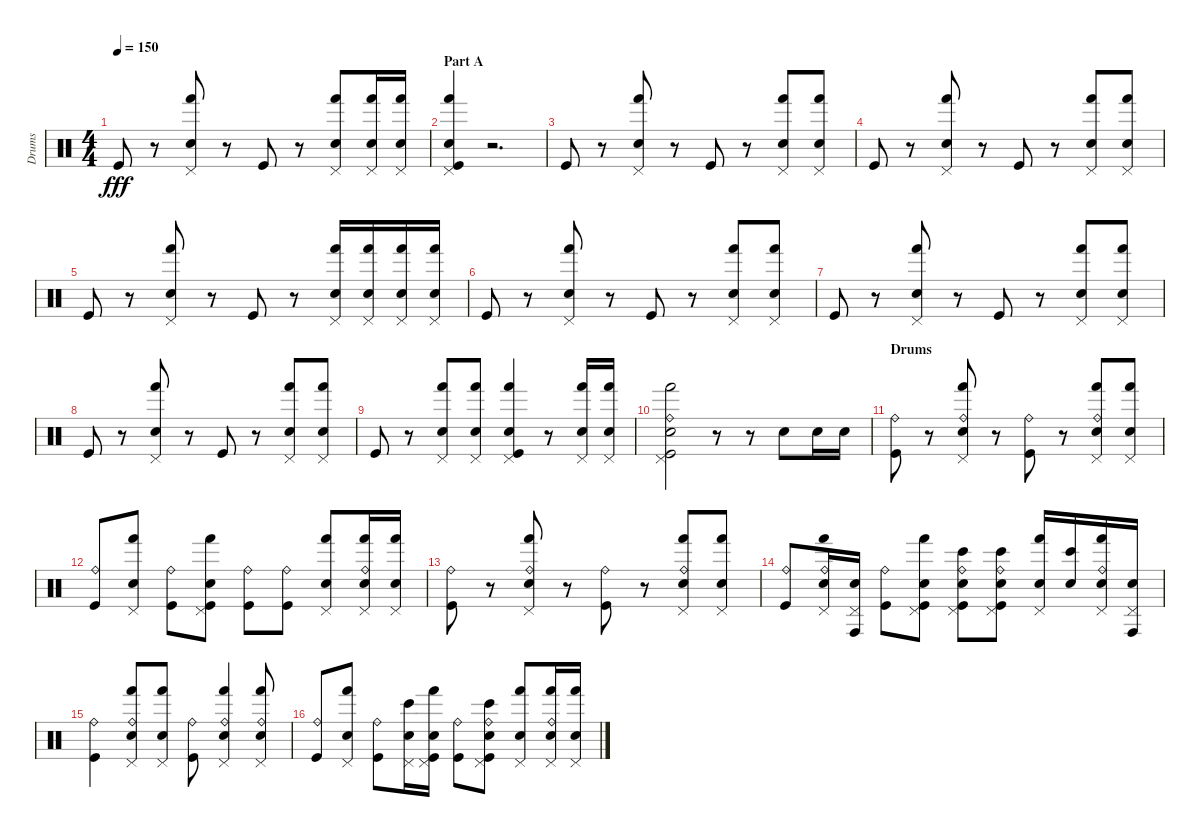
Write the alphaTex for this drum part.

\track ("Drums" "Drums") {instrument percussion}
\staff {score}
\articulation defaults
\ts (4 4)
\tempo 150
\clef neutral
\ks c "Kick (hit)".8{dy fff}
r.8 ("Pedal Hi-Hat (hit)" "Hand (hit)" "Electric Snare (hit)").8 r.8 "Kick (hit)".8 r.8 ("Pedal Hi-Hat (hit)" "Hand (hit)" "Electric Snare (hit)").8 ("Pedal Hi-Hat (hit)" "Hand (hit)" "Electric Snare (hit)").16 ("Pedal Hi-Hat (hit)" "Hand (hit)" "Electric Snare (hit)").16 |
\section ("" "Part A")
("Pedal Hi-Hat (hit)" "Hand (hit)" "Electric Snare (hit)" "Kick (hit)").4 r.2{d} |
"Kick (hit)".8 r.8 ("Pedal Hi-Hat (hit)" "Hand (hit)" "Electric Snare (hit)").8 r.8 "Kick (hit)".8 r.8 ("Pedal Hi-Hat (hit)" "Hand (hit)" "Electric Snare (hit)").8 ("Pedal Hi-Hat (hit)" "Hand (hit)" "Electric Snare (hit)").8 |
"Kick (hit)".8 r.8 ("Pedal Hi-Hat (hit)" "Hand (hit)" "Electric Snare (hit)").8 r.8 "Kick (hit)".8 r.8 ("Pedal Hi-Hat (hit)" "Hand (hit)" "Electric Snare (hit)").8 ("Pedal Hi-Hat (hit)" "Hand (hit)" "Electric Snare (hit)").8 |
"Kick (hit)".8 r.8 ("Pedal Hi-Hat (hit)" "Hand (hit)" "Electric Snare (hit)").8 r.8 "Kick (hit)".8 r.8 ("Pedal Hi-Hat (hit)" "Hand (hit)" "Electric Snare (hit)").16 ("Pedal Hi-Hat (hit)" "Hand (hit)" "Electric Snare (hit)").16 ("Pedal Hi-Hat (hit)" "Hand (hit)" "Electric Snare (hit)").16 ("Pedal Hi-Hat (hit)" "Hand (hit)" "Electric Snare (hit)").16 |
"Kick (hit)".8 r.8 ("Pedal Hi-Hat (hit)" "Hand (hit)" "Electric Snare (hit)").8 r.8 "Kick (hit)".8 r.8 ("Pedal Hi-Hat (hit)" "Hand (hit)" "Electric Snare (hit)").8 ("Pedal Hi-Hat (hit)" "Hand (hit)" "Electric Snare (hit)").8 |
"Kick (hit)".8 r.8 ("Pedal Hi-Hat (hit)" "Hand (hit)" "Electric Snare (hit)").8 r.8 "Kick (hit)".8 r.8 ("Pedal Hi-Hat (hit)" "Hand (hit)" "Electric Snare (hit)").8 ("Pedal Hi-Hat (hit)" "Hand (hit)" "Electric Snare (hit)").8 |
"Kick (hit)".8 r.8 ("Pedal Hi-Hat (hit)" "Hand (hit)" "Electric Snare (hit)").8 r.8 "Kick (hit)".8 r.8 ("Pedal Hi-Hat (hit)" "Hand (hit)" "Electric Snare (hit)").8 ("Pedal Hi-Hat (hit)" "Hand (hit)" "Electric Snare (hit)").8 |
"Kick (hit)".8 r.8 ("Pedal Hi-Hat (hit)" "Hand (hit)" "Electric Snare (hit)").8 ("Pedal Hi-Hat (hit)" "Hand (hit)" "Electric Snare (hit)").8 ("Pedal Hi-Hat (hit)" "Hand (hit)" "Electric Snare (hit)" "Kick (hit)").4 r.8 ("Pedal Hi-Hat (hit)" "Hand (hit)" "Electric Snare (hit)").16 ("Pedal Hi-Hat (hit)" "Hand (hit)" "Electric Snare (hit)").16 |
("Ride (bell)" "Pedal Hi-Hat (hit)" "Hand (hit)" "Electric Snare (hit)" "Kick (hit)").2 r.8 r.8 "Electric Snare (hit)".8 "Electric Snare (hit)".16 "Electric Snare (hit)".16 |
\section ("" "Drums")
("Ride (bell)" "Kick (hit)").8 r.8 ("Ride (bell)" "Pedal Hi-Hat (hit)" "Hand (hit)" "Electric Snare (hit)").8 r.8 ("Ride (bell)" "Kick (hit)").8 r.8 ("Ride (bell)" "Pedal Hi-Hat (hit)" "Hand (hit)" "Electric Snare (hit)").8 ("Pedal Hi-Hat (hit)" "Hand (hit)" "Electric Snare (hit)").8 |
("Ride (bell)" "Kick (hit)").8 ("Pedal Hi-Hat (hit)" "Hand (hit)" "Electric Snare (hit)").8 ("Ride (bell)" "Kick (hit)").8 ("Pedal Hi-Hat (hit)" "Hand (hit)" "Electric Snare (hit)" "Kick (hit)").8 ("Ride (bell)" "Kick (hit)").8 ("Ride (bell)" "Kick (hit)").8 ("Pedal Hi-Hat (hit)" "Hand (hit)" "Electric Snare (hit)").8 ("Ride (bell)" "Pedal Hi-Hat (hit)" "Hand (hit)" "Electric Snare (hit)").16 ("Pedal Hi-Hat (hit)" "Hand (hit)" "Electric Snare (hit)").16 |
("Ride (bell)" "Kick (hit)").8 r.8 ("Ride (bell)" "Pedal Hi-Hat (hit)" "Hand (hit)" "Electric Snare (hit)").8 r.8 ("Ride (bell)" "Kick (hit)").8 r.8 ("Ride (bell)" "Pedal Hi-Hat (hit)" "Hand (hit)" "Electric Snare (hit)").8 ("Pedal Hi-Hat (hit)" "Hand (hit)" "Electric Snare (hit)").8 |
("Ride (bell)" "Kick (hit)").8 ("Ride (bell)" "Pedal Hi-Hat (hit)" "Hand (hit)" "Electric Snare (hit)").16 ("Pedal Hi-Hat (hit)" "Conga high (hit)" "Electric Snare (hit)").16 ("Ride (bell)" "Kick (hit)").8 ("Pedal Hi-Hat (hit)" "Hand (hit)" "Electric Snare (hit)" "Kick (hit)").8 ("Ride (bell)" "Pedal Hi-Hat (hit)" "Bongo High (hit)" "Electric Snare (hit)" "Kick (hit)").8 ("Ride (bell)" "Pedal Hi-Hat (hit)" "Bongo High (hit)" "Electric Snare (hit)" "Kick (hit)").8 ("Pedal Hi-Hat (hit)" "Hand (hit)" "Electric Snare (hit)").16 ("Bongo High (hit)" "Electric Snare (hit)").16 ("Ride (bell)" "Pedal Hi-Hat (hit)" "Hand (hit)" "Electric Snare (hit)").16 ("Pedal Hi-Hat (hit)" "Conga high (hit)" "Electric Snare (hit)").16 |
("Ride (bell)" "Kick (hit)").4 ("Ride (bell)" "Pedal Hi-Hat (hit)" "Hand (hit)" "Electric Snare (hit)").8 ("Pedal Hi-Hat (hit)" "Hand (hit)" "Electric Snare (hit)").8 ("Ride (bell)" "Kick (hit)").8 ("Ride (bell)" "Pedal Hi-Hat (hit)" "Hand (hit)" "Electric Snare (hit)").4 ("Ride (bell)" "Pedal Hi-Hat (hit)" "Hand (hit)" "Electric Snare (hit)").8 |
("Ride (bell)" "Kick (hit)").8 ("Pedal Hi-Hat (hit)" "Hand (hit)" "Electric Snare (hit)").8 ("Ride (bell)" "Kick (hit)").8 ("Pedal Hi-Hat (hit)" "Bongo High (hit)" "Electric Snare (hit)").16 ("Pedal Hi-Hat (hit)" "Hand (hit)" "Electric Snare (hit)" "Kick (hit)").16 ("Ride (bell)" "Kick (hit)").8 ("Ride (bell)" "Pedal Hi-Hat (hit)" "Bongo High (hit)" "Electric Snare (hit)" "Kick (hit)").8 ("Pedal Hi-Hat (hit)" "Hand (hit)" "Electric Snare (hit)").8 ("Ride (bell)" "Pedal Hi-Hat (hit)" "Hand (hit)" "Electric Snare (hit)").16 ("Pedal Hi-Hat (hit)" "Hand (hit)" "Electric Snare (hit)").16
